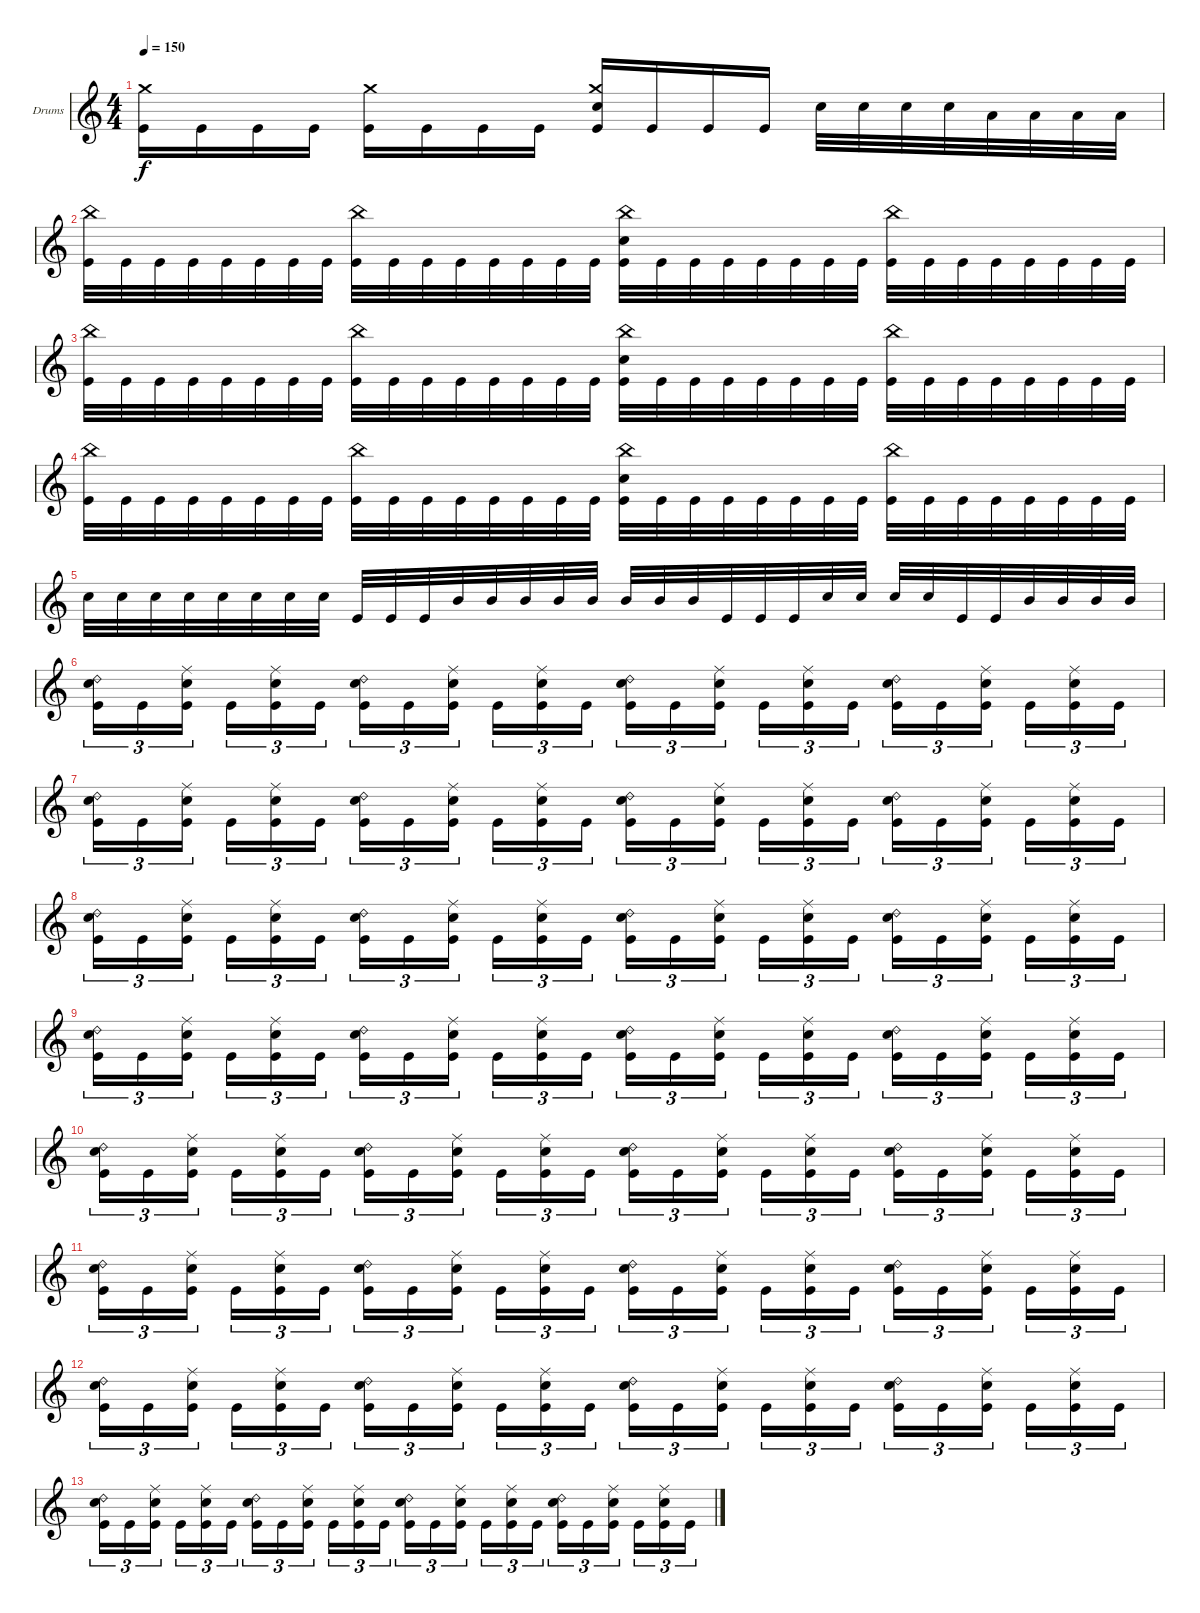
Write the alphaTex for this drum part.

\defaultSystemsLayout 4
\bracketExtendMode groupsimilarinstruments
\firstSystemTrackNameOrientation horizontal
\otherSystemsTrackNameOrientation horizontal
\track ("Drumkit" "Drums") {instrument percussion}
\staff {score}
\articulation defaults
\ts (4 4)
\tempo 150
\clef g2
\ks c
("Kick (hit)" "Crash medium (hit)").16{dy f} "Kick (hit)".16 "Kick (hit)".16 "Kick (hit)".16 ("Kick (hit)" "Crash medium (hit)").16 "Kick (hit)".16 "Kick (hit)".16 "Kick (hit)".16 ("Kick (hit)" "Crash medium (hit)" "Snare (hit) 2").16 "Kick (hit)".16 "Kick (hit)".16 "Kick (hit)".16 "Snare (hit) 2".32 "Snare (hit) 2".32 "Snare (hit) 2".32 "Snare (hit) 2".32 "Low Tom (hit)".32 "Low Tom (hit)".32 "Low Tom (hit)".32 "Low Tom (hit)".32 |
("Kick (hit)" "China (hit)").32 "Kick (hit)".32 "Kick (hit)".32 "Kick (hit)".32 "Kick (hit)".32 "Kick (hit)".32 "Kick (hit)".32 "Kick (hit)".32 ("Kick (hit)" "China (hit)").32 "Kick (hit)".32 "Kick (hit)".32 "Kick (hit)".32 "Kick (hit)".32 "Kick (hit)".32 "Kick (hit)".32 "Kick (hit)".32 ("Kick (hit)" "Snare (hit) 2" "China (hit)").32 "Kick (hit)".32 "Kick (hit)".32 "Kick (hit)".32 "Kick (hit)".32 "Kick (hit)".32 "Kick (hit)".32 "Kick (hit)".32 ("Kick (hit)" "China (hit)").32 "Kick (hit)".32 "Kick (hit)".32 "Kick (hit)".32 "Kick (hit)".32 "Kick (hit)".32 "Kick (hit)".32 "Kick (hit)".32 |
("Kick (hit)" "China (hit)").32 "Kick (hit)".32 "Kick (hit)".32 "Kick (hit)".32 "Kick (hit)".32 "Kick (hit)".32 "Kick (hit)".32 "Kick (hit)".32 ("Kick (hit)" "China (hit)").32 "Kick (hit)".32 "Kick (hit)".32 "Kick (hit)".32 "Kick (hit)".32 "Kick (hit)".32 "Kick (hit)".32 "Kick (hit)".32 ("Kick (hit)" "Snare (hit) 2" "China (hit)").32 "Kick (hit)".32 "Kick (hit)".32 "Kick (hit)".32 "Kick (hit)".32 "Kick (hit)".32 "Kick (hit)".32 "Kick (hit)".32 ("Kick (hit)" "China (hit)").32 "Kick (hit)".32 "Kick (hit)".32 "Kick (hit)".32 "Kick (hit)".32 "Kick (hit)".32 "Kick (hit)".32 "Kick (hit)".32 |
("Kick (hit)" "China (hit)").32 "Kick (hit)".32 "Kick (hit)".32 "Kick (hit)".32 "Kick (hit)".32 "Kick (hit)".32 "Kick (hit)".32 "Kick (hit)".32 ("Kick (hit)" "China (hit)").32 "Kick (hit)".32 "Kick (hit)".32 "Kick (hit)".32 "Kick (hit)".32 "Kick (hit)".32 "Kick (hit)".32 "Kick (hit)".32 ("Kick (hit)" "Snare (hit) 2" "China (hit)").32 "Kick (hit)".32 "Kick (hit)".32 "Kick (hit)".32 "Kick (hit)".32 "Kick (hit)".32 "Kick (hit)".32 "Kick (hit)".32 ("Kick (hit)" "China (hit)").32 "Kick (hit)".32 "Kick (hit)".32 "Kick (hit)".32 "Kick (hit)".32 "Kick (hit)".32 "Kick (hit)".32 "Kick (hit)".32 |
"Snare (hit) 2".32 "Snare (hit) 2".32 "Snare (hit) 2".32 "Snare (hit) 2".32 "Snare (hit) 2".32 "Snare (hit) 2".32 "Snare (hit) 2".32 "Snare (hit) 2".32 "Kick (hit)".32 "Kick (hit)".32 "Kick (hit)".32 "Mid Tom (hit)".32 "Mid Tom (hit)".32 "Mid Tom (hit)".32 "Mid Tom (hit)".32 "Mid Tom (hit)".32 "Mid Tom (hit)".32 "Mid Tom (hit)".32 "Mid Tom (hit)".32 "Kick (hit)".32 "Kick (hit)".32 "Kick (hit)".32 "Snare (hit) 2".32 "Snare (hit) 2".32 "Snare (hit) 2".32 "Snare (hit) 2".32 "Kick (hit)".32 "Kick (hit)".32 "Mid Tom (hit)".32 "Mid Tom (hit)".32 "Mid Tom (hit)".32 "Mid Tom (hit)".32 |
("Kick (hit)" "Snare (hit) 2" "Ride (bell) 2").16{tu (3 2)} "Kick (hit)".16{tu (3 2)} ("Kick (hit)" "Snare (hit) 2" "Ride (middle)").16{tu (3 2)} "Kick (hit)".16{tu (3 2)} ("Kick (hit)" "Snare (hit) 2" "Ride (middle)").16{tu (3 2)} "Kick (hit)".16{tu (3 2)} ("Kick (hit)" "Snare (hit) 2" "Ride (bell) 2").16{tu (3 2)} "Kick (hit)".16{tu (3 2)} ("Kick (hit)" "Snare (hit) 2" "Ride (middle)").16{tu (3 2)} "Kick (hit)".16{tu (3 2)} ("Kick (hit)" "Snare (hit) 2" "Ride (middle)").16{tu (3 2)} "Kick (hit)".16{tu (3 2)} ("Kick (hit)" "Snare (hit) 2" "Ride (bell) 2").16{tu (3 2)} "Kick (hit)".16{tu (3 2)} ("Kick (hit)" "Snare (hit) 2" "Ride (middle)").16{tu (3 2)} "Kick (hit)".16{tu (3 2)} ("Kick (hit)" "Snare (hit) 2" "Ride (middle)").16{tu (3 2)} "Kick (hit)".16{tu (3 2)} ("Kick (hit)" "Snare (hit) 2" "Ride (bell) 2").16{tu (3 2)} "Kick (hit)".16{tu (3 2)} ("Kick (hit)" "Snare (hit) 2" "Ride (middle)").16{tu (3 2)} "Kick (hit)".16{tu (3 2)} ("Kick (hit)" "Snare (hit) 2" "Ride (middle)").16{tu (3 2)} "Kick (hit)".16{tu (3 2)} |
("Kick (hit)" "Snare (hit) 2" "Ride (bell) 2").16{tu (3 2)} "Kick (hit)".16{tu (3 2)} ("Kick (hit)" "Snare (hit) 2" "Ride (middle)").16{tu (3 2)} "Kick (hit)".16{tu (3 2)} ("Kick (hit)" "Snare (hit) 2" "Ride (middle)").16{tu (3 2)} "Kick (hit)".16{tu (3 2)} ("Kick (hit)" "Snare (hit) 2" "Ride (bell) 2").16{tu (3 2)} "Kick (hit)".16{tu (3 2)} ("Kick (hit)" "Snare (hit) 2" "Ride (middle)").16{tu (3 2)} "Kick (hit)".16{tu (3 2)} ("Kick (hit)" "Snare (hit) 2" "Ride (middle)").16{tu (3 2)} "Kick (hit)".16{tu (3 2)} ("Kick (hit)" "Snare (hit) 2" "Ride (bell) 2").16{tu (3 2)} "Kick (hit)".16{tu (3 2)} ("Kick (hit)" "Snare (hit) 2" "Ride (middle)").16{tu (3 2)} "Kick (hit)".16{tu (3 2)} ("Kick (hit)" "Snare (hit) 2" "Ride (middle)").16{tu (3 2)} "Kick (hit)".16{tu (3 2)} ("Kick (hit)" "Snare (hit) 2" "Ride (bell) 2").16{tu (3 2)} "Kick (hit)".16{tu (3 2)} ("Kick (hit)" "Snare (hit) 2" "Ride (middle)").16{tu (3 2)} "Kick (hit)".16{tu (3 2)} ("Kick (hit)" "Snare (hit) 2" "Ride (middle)").16{tu (3 2)} "Kick (hit)".16{tu (3 2)} |
("Kick (hit)" "Snare (hit) 2" "Ride (bell) 2").16{tu (3 2)} "Kick (hit)".16{tu (3 2)} ("Kick (hit)" "Snare (hit) 2" "Ride (middle)").16{tu (3 2)} "Kick (hit)".16{tu (3 2)} ("Kick (hit)" "Snare (hit) 2" "Ride (middle)").16{tu (3 2)} "Kick (hit)".16{tu (3 2)} ("Kick (hit)" "Snare (hit) 2" "Ride (bell) 2").16{tu (3 2)} "Kick (hit)".16{tu (3 2)} ("Kick (hit)" "Snare (hit) 2" "Ride (middle)").16{tu (3 2)} "Kick (hit)".16{tu (3 2)} ("Kick (hit)" "Snare (hit) 2" "Ride (middle)").16{tu (3 2)} "Kick (hit)".16{tu (3 2)} ("Kick (hit)" "Snare (hit) 2" "Ride (bell) 2").16{tu (3 2)} "Kick (hit)".16{tu (3 2)} ("Kick (hit)" "Snare (hit) 2" "Ride (middle)").16{tu (3 2)} "Kick (hit)".16{tu (3 2)} ("Kick (hit)" "Snare (hit) 2" "Ride (middle)").16{tu (3 2)} "Kick (hit)".16{tu (3 2)} ("Kick (hit)" "Snare (hit) 2" "Ride (bell) 2").16{tu (3 2)} "Kick (hit)".16{tu (3 2)} ("Kick (hit)" "Snare (hit) 2" "Ride (middle)").16{tu (3 2)} "Kick (hit)".16{tu (3 2)} ("Kick (hit)" "Snare (hit) 2" "Ride (middle)").16{tu (3 2)} "Kick (hit)".16{tu (3 2)} |
("Kick (hit)" "Snare (hit) 2" "Ride (bell) 2").16{tu (3 2)} "Kick (hit)".16{tu (3 2)} ("Kick (hit)" "Snare (hit) 2" "Ride (middle)").16{tu (3 2)} "Kick (hit)".16{tu (3 2)} ("Kick (hit)" "Snare (hit) 2" "Ride (middle)").16{tu (3 2)} "Kick (hit)".16{tu (3 2)} ("Kick (hit)" "Snare (hit) 2" "Ride (bell) 2").16{tu (3 2)} "Kick (hit)".16{tu (3 2)} ("Kick (hit)" "Snare (hit) 2" "Ride (middle)").16{tu (3 2)} "Kick (hit)".16{tu (3 2)} ("Kick (hit)" "Snare (hit) 2" "Ride (middle)").16{tu (3 2)} "Kick (hit)".16{tu (3 2)} ("Kick (hit)" "Snare (hit) 2" "Ride (bell) 2").16{tu (3 2)} "Kick (hit)".16{tu (3 2)} ("Kick (hit)" "Snare (hit) 2" "Ride (middle)").16{tu (3 2)} "Kick (hit)".16{tu (3 2)} ("Kick (hit)" "Snare (hit) 2" "Ride (middle)").16{tu (3 2)} "Kick (hit)".16{tu (3 2)} ("Kick (hit)" "Snare (hit) 2" "Ride (bell) 2").16{tu (3 2)} "Kick (hit)".16{tu (3 2)} ("Kick (hit)" "Snare (hit) 2" "Ride (middle)").16{tu (3 2)} "Kick (hit)".16{tu (3 2)} ("Kick (hit)" "Snare (hit) 2" "Ride (middle)").16{tu (3 2)} "Kick (hit)".16{tu (3 2)} |
("Kick (hit)" "Snare (hit) 2" "Ride (bell) 2").16{tu (3 2)} "Kick (hit)".16{tu (3 2)} ("Kick (hit)" "Snare (hit) 2" "Ride (middle)").16{tu (3 2)} "Kick (hit)".16{tu (3 2)} ("Kick (hit)" "Snare (hit) 2" "Ride (middle)").16{tu (3 2)} "Kick (hit)".16{tu (3 2)} ("Kick (hit)" "Snare (hit) 2" "Ride (bell) 2").16{tu (3 2)} "Kick (hit)".16{tu (3 2)} ("Kick (hit)" "Snare (hit) 2" "Ride (middle)").16{tu (3 2)} "Kick (hit)".16{tu (3 2)} ("Kick (hit)" "Snare (hit) 2" "Ride (middle)").16{tu (3 2)} "Kick (hit)".16{tu (3 2)} ("Kick (hit)" "Snare (hit) 2" "Ride (bell) 2").16{tu (3 2)} "Kick (hit)".16{tu (3 2)} ("Kick (hit)" "Snare (hit) 2" "Ride (middle)").16{tu (3 2)} "Kick (hit)".16{tu (3 2)} ("Kick (hit)" "Snare (hit) 2" "Ride (middle)").16{tu (3 2)} "Kick (hit)".16{tu (3 2)} ("Kick (hit)" "Snare (hit) 2" "Ride (bell) 2").16{tu (3 2)} "Kick (hit)".16{tu (3 2)} ("Kick (hit)" "Snare (hit) 2" "Ride (middle)").16{tu (3 2)} "Kick (hit)".16{tu (3 2)} ("Kick (hit)" "Snare (hit) 2" "Ride (middle)").16{tu (3 2)} "Kick (hit)".16{tu (3 2)} |
("Kick (hit)" "Snare (hit) 2" "Ride (bell) 2").16{tu (3 2)} "Kick (hit)".16{tu (3 2)} ("Kick (hit)" "Snare (hit) 2" "Ride (middle)").16{tu (3 2)} "Kick (hit)".16{tu (3 2)} ("Kick (hit)" "Snare (hit) 2" "Ride (middle)").16{tu (3 2)} "Kick (hit)".16{tu (3 2)} ("Kick (hit)" "Snare (hit) 2" "Ride (bell) 2").16{tu (3 2)} "Kick (hit)".16{tu (3 2)} ("Kick (hit)" "Snare (hit) 2" "Ride (middle)").16{tu (3 2)} "Kick (hit)".16{tu (3 2)} ("Kick (hit)" "Snare (hit) 2" "Ride (middle)").16{tu (3 2)} "Kick (hit)".16{tu (3 2)} ("Kick (hit)" "Snare (hit) 2" "Ride (bell) 2").16{tu (3 2)} "Kick (hit)".16{tu (3 2)} ("Kick (hit)" "Snare (hit) 2" "Ride (middle)").16{tu (3 2)} "Kick (hit)".16{tu (3 2)} ("Kick (hit)" "Snare (hit) 2" "Ride (middle)").16{tu (3 2)} "Kick (hit)".16{tu (3 2)} ("Kick (hit)" "Snare (hit) 2" "Ride (bell) 2").16{tu (3 2)} "Kick (hit)".16{tu (3 2)} ("Kick (hit)" "Snare (hit) 2" "Ride (middle)").16{tu (3 2)} "Kick (hit)".16{tu (3 2)} ("Kick (hit)" "Snare (hit) 2" "Ride (middle)").16{tu (3 2)} "Kick (hit)".16{tu (3 2)} |
("Kick (hit)" "Snare (hit) 2" "Ride (bell) 2").16{tu (3 2)} "Kick (hit)".16{tu (3 2)} ("Kick (hit)" "Snare (hit) 2" "Ride (middle)").16{tu (3 2)} "Kick (hit)".16{tu (3 2)} ("Kick (hit)" "Snare (hit) 2" "Ride (middle)").16{tu (3 2)} "Kick (hit)".16{tu (3 2)} ("Kick (hit)" "Snare (hit) 2" "Ride (bell) 2").16{tu (3 2)} "Kick (hit)".16{tu (3 2)} ("Kick (hit)" "Snare (hit) 2" "Ride (middle)").16{tu (3 2)} "Kick (hit)".16{tu (3 2)} ("Kick (hit)" "Snare (hit) 2" "Ride (middle)").16{tu (3 2)} "Kick (hit)".16{tu (3 2)} ("Kick (hit)" "Snare (hit) 2" "Ride (bell) 2").16{tu (3 2)} "Kick (hit)".16{tu (3 2)} ("Kick (hit)" "Snare (hit) 2" "Ride (middle)").16{tu (3 2)} "Kick (hit)".16{tu (3 2)} ("Kick (hit)" "Snare (hit) 2" "Ride (middle)").16{tu (3 2)} "Kick (hit)".16{tu (3 2)} ("Kick (hit)" "Snare (hit) 2" "Ride (bell) 2").16{tu (3 2)} "Kick (hit)".16{tu (3 2)} ("Kick (hit)" "Snare (hit) 2" "Ride (middle)").16{tu (3 2)} "Kick (hit)".16{tu (3 2)} ("Kick (hit)" "Snare (hit) 2" "Ride (middle)").16{tu (3 2)} "Kick (hit)".16{tu (3 2)} |
("Kick (hit)" "Snare (hit) 2" "Ride (bell) 2").16{tu (3 2)} "Kick (hit)".16{tu (3 2)} ("Kick (hit)" "Snare (hit) 2" "Ride (middle)").16{tu (3 2)} "Kick (hit)".16{tu (3 2)} ("Kick (hit)" "Snare (hit) 2" "Ride (middle)").16{tu (3 2)} "Kick (hit)".16{tu (3 2)} ("Kick (hit)" "Snare (hit) 2" "Ride (bell) 2").16{tu (3 2)} "Kick (hit)".16{tu (3 2)} ("Kick (hit)" "Snare (hit) 2" "Ride (middle)").16{tu (3 2)} "Kick (hit)".16{tu (3 2)} ("Kick (hit)" "Snare (hit) 2" "Ride (middle)").16{tu (3 2)} "Kick (hit)".16{tu (3 2)} ("Kick (hit)" "Snare (hit) 2" "Ride (bell) 2").16{tu (3 2)} "Kick (hit)".16{tu (3 2)} ("Kick (hit)" "Snare (hit) 2" "Ride (middle)").16{tu (3 2)} "Kick (hit)".16{tu (3 2)} ("Kick (hit)" "Snare (hit) 2" "Ride (middle)").16{tu (3 2)} "Kick (hit)".16{tu (3 2)} ("Kick (hit)" "Snare (hit) 2" "Ride (bell) 2").16{tu (3 2)} "Kick (hit)".16{tu (3 2)} ("Kick (hit)" "Snare (hit) 2" "Ride (middle)").16{tu (3 2)} "Kick (hit)".16{tu (3 2)} ("Kick (hit)" "Snare (hit) 2" "Ride (middle)").16{tu (3 2)} "Kick (hit)".16{tu (3 2)}
